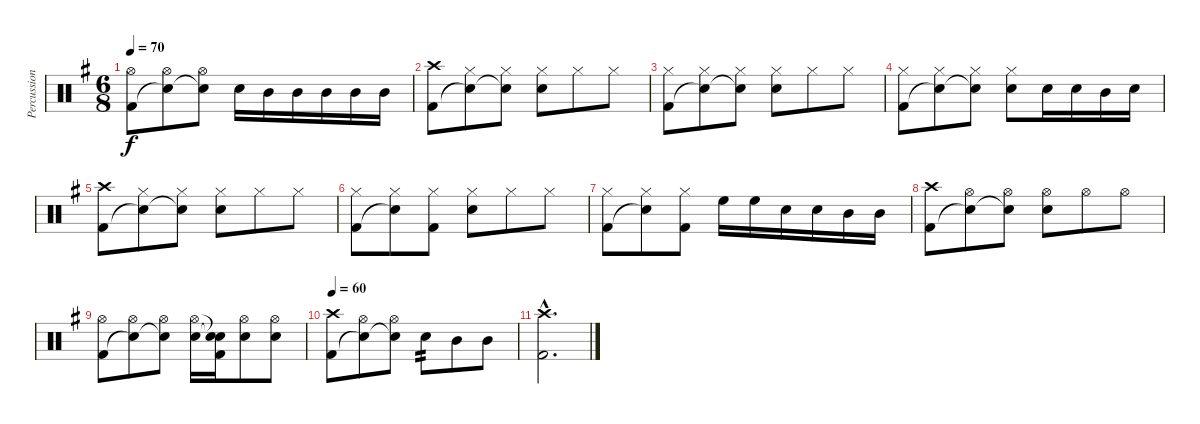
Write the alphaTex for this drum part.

\track ("Percussion" "Percussion") {instrument percussion}
\staff {score}
\articulation defaults
\ts (6 8)
\tempo 70
\clef neutral
\ks g
("Hi-Hat (open)" "Kick (hit) 2").8{dy f} ("Hi-Hat (open)" "Snare (hit)"{t}).8 ("Hi-Hat (open)" "Snare (hit)"{t}).8 "Snare (hit) 2".16 "Mid Tom (hit)".16 "Mid Tom (hit)".16 "Mid Tom (hit)".16 "Mid Tom (hit)".16 "Mid Tom (hit)".16 |
("Crash high (hit)" "Kick (hit) 2").8 ("Hi-Hat (closed)" "Snare (hit)"{t}).8 ("Hi-Hat (closed)" "Snare (hit)"{t}).8 ("Hi-Hat (closed)" "Snare (hit) 2").8 "Hi-Hat (closed)".8 "Hi-Hat (closed)".8 |
("Hi-Hat (closed)" "Kick (hit) 2").8 ("Hi-Hat (closed)" "Snare (hit)"{t}).8 ("Hi-Hat (closed)" "Snare (hit)"{t}).8 ("Hi-Hat (closed)" "Snare (hit) 2").8 "Hi-Hat (closed)".8 "Hi-Hat (closed)".8 |
("Hi-Hat (closed)" "Kick (hit) 2").8 ("Hi-Hat (closed)" "Snare (hit)"{t}).8 ("Hi-Hat (closed)" "Snare (hit)"{t}).8 ("Hi-Hat (closed)" "Snare (hit) 2").8 "Snare (hit) 2".16 "Snare (hit) 2".16 "Mid Tom (hit)".16 "Snare (hit) 2".16 |
("Crash high (hit)" "Kick (hit) 2").8 ("Hi-Hat (closed)" "Snare (hit)"{t}).8 ("Hi-Hat (closed)" "Snare (hit)"{t}).8 ("Hi-Hat (closed)" "Snare (hit) 2").8 "Hi-Hat (closed)".8 "Hi-Hat (closed)".8 |
("Hi-Hat (closed)" "Kick (hit) 2").8 ("Hi-Hat (closed)" "Snare (hit)"{t}).8 ("Hi-Hat (closed)" "Kick (hit) 2").8 ("Hi-Hat (closed)" "Snare (hit) 2").8 "Hi-Hat (closed)".8 "Hi-Hat (closed)".8 |
("Hi-Hat (closed)" "Kick (hit) 2").8 ("Hi-Hat (closed)" "Snare (hit)"{t}).8 ("Hi-Hat (closed)" "Kick (hit) 2").8 "High Floor Tom (hit)".16 "High Floor Tom (hit)".16 "Snare (hit) 2".16 "Snare (hit) 2".16 "Mid Tom (hit)".16 "Mid Tom (hit)".16 |
("Crash high (hit)" "Kick (hit) 2").8 ("Hi-Hat (open)" "Snare (hit)"{t}).8 ("Hi-Hat (open)" "Snare (hit)"{t}).8 ("Hi-Hat (open)" "Snare (hit) 2").8 "Hi-Hat (open)".8 "Hi-Hat (open)".8 |
("Hi-Hat (open)" "Kick (hit) 2").8 ("Hi-Hat (open)" "Snare (hit)"{t}).8 ("Hi-Hat (open)" "Snare (hit)"{t}).8 ("Hi-Hat (open)" "Snare (hit) 2").16 ("Snare (hit)"{t} "Snare (hit)"{t} "Kick (hit) 2").16 ("Hi-Hat (open)" "Snare (hit) 2").8 ("Hi-Hat (open)" "Snare (hit) 2").8 |
\tempo 60
("Crash high (hit)" "Kick (hit) 2").8 ("Hi-Hat (open)" "Snare (hit)"{t}).8 ("Hi-Hat (open)" "Snare (hit)"{t}).8 "Snare (hit) 2".8{tp 2} "Mid Tom (hit)".8 "Mid Tom (hit)".8 |
("Crash high (hit)"{hac} "Kick (hit) 2"{hac}).2{d}
